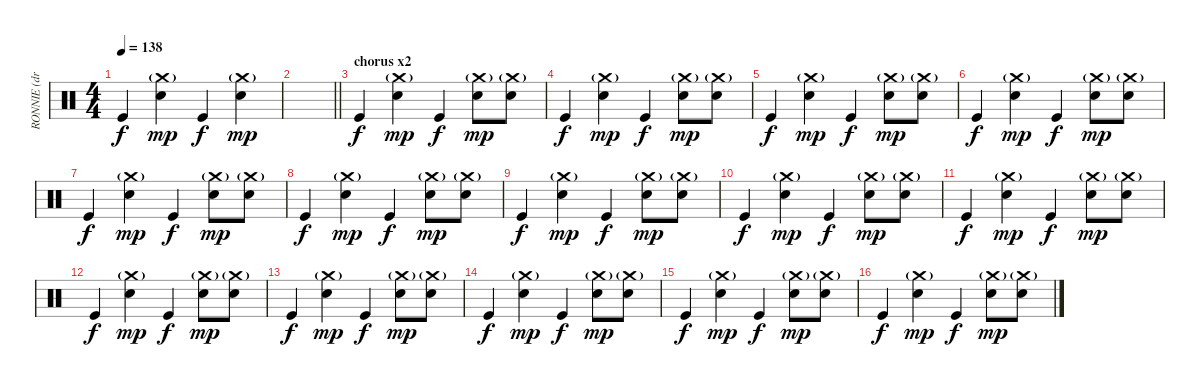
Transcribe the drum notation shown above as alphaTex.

\track ("RONNIE (drums)" "RONNIE (dr") {instrument percussion}
\staff {score}
\articulation defaults
\ts (4 4)
\tempo 138
\clef neutral
\ks c "Kick (hit)".4{dy f}
("Electric Snare (hit)" "Crash medium (hit)"{g}).4{dy mp} "Kick (hit)".4{dy f} ("Electric Snare (hit)" "Crash medium (hit)"{g}).4{dy mp} |
\barLineRight lightlight
|
\section ("" "chorus x2")
"Kick (hit)".4{dy f} ("Electric Snare (hit)" "Crash medium (hit)"{g}).4{dy mp} "Kick (hit)".4{dy f} ("Electric Snare (hit)" "Crash medium (hit)"{g}).8{dy mp} ("Electric Snare (hit)" "Crash medium (hit)"{g}).8 |
"Kick (hit)".4{dy f} ("Electric Snare (hit)" "Crash medium (hit)"{g}).4{dy mp} "Kick (hit)".4{dy f} ("Electric Snare (hit)" "Crash medium (hit)"{g}).8{dy mp} ("Electric Snare (hit)" "Crash medium (hit)"{g}).8 |
"Kick (hit)".4{dy f} ("Electric Snare (hit)" "Crash medium (hit)"{g}).4{dy mp} "Kick (hit)".4{dy f} ("Electric Snare (hit)" "Crash medium (hit)"{g}).8{dy mp} ("Electric Snare (hit)" "Crash medium (hit)"{g}).8 |
"Kick (hit)".4{dy f} ("Electric Snare (hit)" "Crash medium (hit)"{g}).4{dy mp} "Kick (hit)".4{dy f} ("Electric Snare (hit)" "Crash medium (hit)"{g}).8{dy mp} ("Electric Snare (hit)" "Crash medium (hit)"{g}).8 |
"Kick (hit)".4{dy f} ("Electric Snare (hit)" "Crash medium (hit)"{g}).4{dy mp} "Kick (hit)".4{dy f} ("Electric Snare (hit)" "Crash medium (hit)"{g}).8{dy mp} ("Electric Snare (hit)" "Crash medium (hit)"{g}).8 |
"Kick (hit)".4{dy f} ("Electric Snare (hit)" "Crash medium (hit)"{g}).4{dy mp} "Kick (hit)".4{dy f} ("Electric Snare (hit)" "Crash medium (hit)"{g}).8{dy mp} ("Electric Snare (hit)" "Crash medium (hit)"{g}).8 |
"Kick (hit)".4{dy f} ("Electric Snare (hit)" "Crash medium (hit)"{g}).4{dy mp} "Kick (hit)".4{dy f} ("Electric Snare (hit)" "Crash medium (hit)"{g}).8{dy mp} ("Electric Snare (hit)" "Crash medium (hit)"{g}).8 |
"Kick (hit)".4{dy f} ("Electric Snare (hit)" "Crash medium (hit)"{g}).4{dy mp} "Kick (hit)".4{dy f} ("Electric Snare (hit)" "Crash medium (hit)"{g}).8{dy mp} ("Electric Snare (hit)" "Crash medium (hit)"{g}).8 |
"Kick (hit)".4{dy f} ("Electric Snare (hit)" "Crash medium (hit)"{g}).4{dy mp} "Kick (hit)".4{dy f} ("Electric Snare (hit)" "Crash medium (hit)"{g}).8{dy mp} ("Electric Snare (hit)" "Crash medium (hit)"{g}).8 |
"Kick (hit)".4{dy f} ("Electric Snare (hit)" "Crash medium (hit)"{g}).4{dy mp} "Kick (hit)".4{dy f} ("Electric Snare (hit)" "Crash medium (hit)"{g}).8{dy mp} ("Electric Snare (hit)" "Crash medium (hit)"{g}).8 |
"Kick (hit)".4{dy f} ("Electric Snare (hit)" "Crash medium (hit)"{g}).4{dy mp} "Kick (hit)".4{dy f} ("Electric Snare (hit)" "Crash medium (hit)"{g}).8{dy mp} ("Electric Snare (hit)" "Crash medium (hit)"{g}).8 |
"Kick (hit)".4{dy f} ("Electric Snare (hit)" "Crash medium (hit)"{g}).4{dy mp} "Kick (hit)".4{dy f} ("Electric Snare (hit)" "Crash medium (hit)"{g}).8{dy mp} ("Electric Snare (hit)" "Crash medium (hit)"{g}).8 |
"Kick (hit)".4{dy f} ("Electric Snare (hit)" "Crash medium (hit)"{g}).4{dy mp} "Kick (hit)".4{dy f} ("Electric Snare (hit)" "Crash medium (hit)"{g}).8{dy mp} ("Electric Snare (hit)" "Crash medium (hit)"{g}).8 |
"Kick (hit)".4{dy f} ("Electric Snare (hit)" "Crash medium (hit)"{g}).4{dy mp} "Kick (hit)".4{dy f} ("Electric Snare (hit)" "Crash medium (hit)"{g}).8{dy mp} ("Electric Snare (hit)" "Crash medium (hit)"{g}).8
